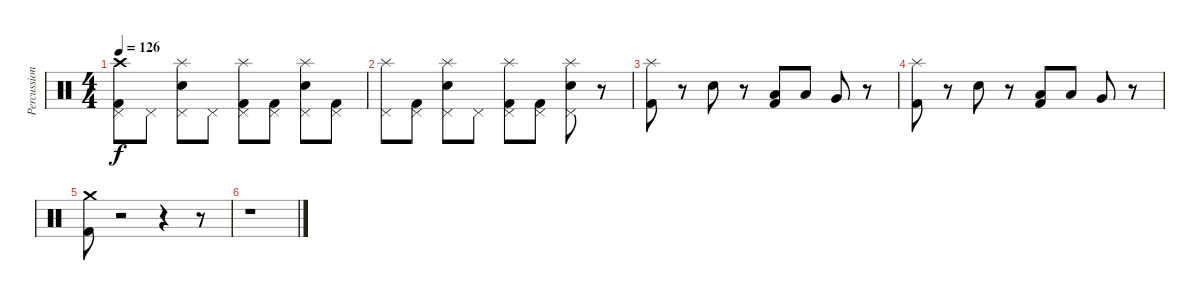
\track ("Percussion" "Percussion") {instrument percussion}
\staff {score}
\articulation defaults
\ts (4 4)
\tempo 126
\clef neutral
\ks c
("Pedal Hi-Hat (hit)" "Kick (hit) 2" "Crash high (hit)").8{dy f} "Pedal Hi-Hat (hit)".8 ("Pedal Hi-Hat (hit)" "Electric Snare (hit)" "Splash (hit)").8 "Pedal Hi-Hat (hit)".8 ("Pedal Hi-Hat (hit)" "Kick (hit) 2" "Splash (hit)").8 ("Kick (hit) 2" "Pedal Hi-Hat (hit)").8 ("Splash (hit)" "Electric Snare (hit)" "Pedal Hi-Hat (hit)").8 ("Pedal Hi-Hat (hit)" "Kick (hit) 2").8 |
("Splash (hit)" "Pedal Hi-Hat (hit)").8 ("Kick (hit) 2" "Pedal Hi-Hat (hit)").8 ("Splash (hit)" "Electric Snare (hit)" "Pedal Hi-Hat (hit)").8 "Pedal Hi-Hat (hit)".8 ("Splash (hit)" "Kick (hit) 2" "Pedal Hi-Hat (hit)").8 ("Pedal Hi-Hat (hit)" "Kick (hit) 2").8 ("Pedal Hi-Hat (hit)" "Electric Snare (hit)" "Splash (hit)").8 r.8 |
("Kick (hit) 2" "Splash (hit)").8 r.8 "Electric Snare (hit)".8 r.8 ("Low Tom (hit)" "Kick (hit) 2").8 "Low Tom (hit)".8 "Very Low Tom (hit)".8 r.8 |
("Kick (hit) 2" "Splash (hit)").8 r.8 "Electric Snare (hit)".8 r.8 ("Low Tom (hit)" "Kick (hit) 2").8 "Low Tom (hit)".8 "Very Low Tom (hit)".8 r.8 |
("Kick (hit) 2" "Crash medium (hit)").8 r.2 r.4 r.8 |
r.1
